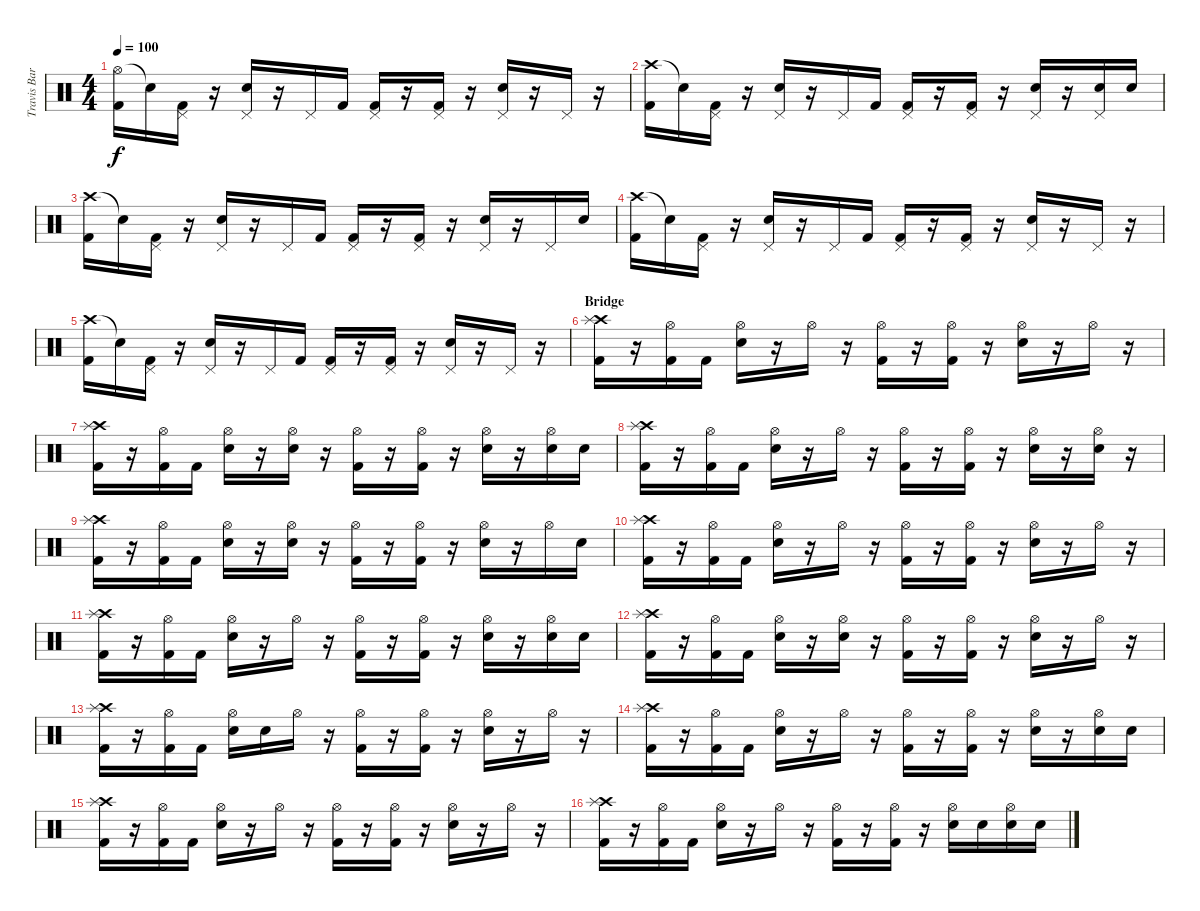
\track ("Travis Barker (Schlagzeug)" "Travis Bar") {instrument percussion}
\staff {score}
\articulation defaults
\ts (4 4)
\tempo 100
\clef neutral
\ks c
("Hi-Hat (open)" "Kick (hit) 2").16{dy f} "Snare (hit)"{t}.16 ("Pedal Hi-Hat (hit)" "Kick (hit) 2").16 r.16 ("Pedal Hi-Hat (hit)" "Electric Snare (hit)").16 r.16 "Pedal Hi-Hat (hit)".16 "Kick (hit) 2".16 ("Pedal Hi-Hat (hit)" "Kick (hit) 2").16 r.16 ("Pedal Hi-Hat (hit)" "Kick (hit) 2").16 r.16 ("Pedal Hi-Hat (hit)" "Electric Snare (hit)").16 r.16 "Pedal Hi-Hat (hit)".16 r.16 |
("Crash high (hit)" "Kick (hit) 2").16 "Snare (hit)"{t}.16 ("Pedal Hi-Hat (hit)" "Kick (hit) 2").16 r.16 ("Pedal Hi-Hat (hit)" "Electric Snare (hit)").16 r.16 "Pedal Hi-Hat (hit)".16 "Kick (hit) 2".16 ("Pedal Hi-Hat (hit)" "Kick (hit) 2").16 r.16 ("Pedal Hi-Hat (hit)" "Kick (hit) 2").16 r.16 ("Pedal Hi-Hat (hit)" "Electric Snare (hit)").16 r.16 ("Pedal Hi-Hat (hit)" "Electric Snare (hit)").16 "Electric Snare (hit)".16 |
("Crash high (hit)" "Kick (hit) 2").16 "Snare (hit)"{t}.16 ("Pedal Hi-Hat (hit)" "Kick (hit) 2").16 r.16 ("Pedal Hi-Hat (hit)" "Electric Snare (hit)").16 r.16 "Pedal Hi-Hat (hit)".16 "Kick (hit) 2".16 ("Pedal Hi-Hat (hit)" "Kick (hit) 2").16 r.16 ("Pedal Hi-Hat (hit)" "Kick (hit) 2").16 r.16 ("Pedal Hi-Hat (hit)" "Electric Snare (hit)").16 r.16 "Pedal Hi-Hat (hit)".16 "Electric Snare (hit)".16 |
("Crash high (hit)" "Kick (hit) 2").16 "Snare (hit)"{t}.16 ("Pedal Hi-Hat (hit)" "Kick (hit) 2").16 r.16 ("Pedal Hi-Hat (hit)" "Electric Snare (hit)").16 r.16 "Pedal Hi-Hat (hit)".16 "Kick (hit) 2".16 ("Pedal Hi-Hat (hit)" "Kick (hit) 2").16 r.16 ("Pedal Hi-Hat (hit)" "Kick (hit) 2").16 r.16 ("Pedal Hi-Hat (hit)" "Electric Snare (hit)").16 r.16 "Pedal Hi-Hat (hit)".16 r.16 |
("Crash high (hit)" "Kick (hit) 2").16 "Snare (hit)"{t}.16 ("Pedal Hi-Hat (hit)" "Kick (hit) 2").16 r.16 ("Pedal Hi-Hat (hit)" "Electric Snare (hit)").16 r.16 "Pedal Hi-Hat (hit)".16 "Kick (hit) 2".16 ("Pedal Hi-Hat (hit)" "Kick (hit) 2").16 r.16 ("Pedal Hi-Hat (hit)" "Kick (hit) 2").16 r.16 ("Pedal Hi-Hat (hit)" "Electric Snare (hit)").16 r.16 "Pedal Hi-Hat (hit)".16 r.16 |
\section ("" "Bridge")
("Crash high (hit)" "Splash (hit)" "Kick (hit) 2").16 r.16 ("Hi-Hat (open)" "Kick (hit) 2").16 "Kick (hit) 2".16 ("Hi-Hat (open)" "Electric Snare (hit)").16 r.16 "Hi-Hat (open)".16 r.16 ("Hi-Hat (open)" "Kick (hit) 2").16 r.16 ("Hi-Hat (open)" "Kick (hit) 2").16 r.16 ("Hi-Hat (open)" "Electric Snare (hit)").16 r.16 "Hi-Hat (open)".16 r.16 |
("Crash high (hit)" "Splash (hit)" "Kick (hit) 2").16 r.16 ("Hi-Hat (open)" "Kick (hit) 2").16 "Kick (hit) 2".16 ("Hi-Hat (open)" "Electric Snare (hit)").16 r.16 ("Hi-Hat (open)" "Electric Snare (hit)").16 r.16 ("Hi-Hat (open)" "Kick (hit) 2").16 r.16 ("Hi-Hat (open)" "Kick (hit) 2").16 r.16 ("Hi-Hat (open)" "Electric Snare (hit)").16 r.16 ("Hi-Hat (open)" "Electric Snare (hit)").16 "Electric Snare (hit)".16 |
("Crash high (hit)" "Splash (hit)" "Kick (hit) 2").16 r.16 ("Hi-Hat (open)" "Kick (hit) 2").16 "Kick (hit) 2".16 ("Hi-Hat (open)" "Electric Snare (hit)").16 r.16 "Hi-Hat (open)".16 r.16 ("Hi-Hat (open)" "Kick (hit) 2").16 r.16 ("Hi-Hat (open)" "Kick (hit) 2").16 r.16 ("Hi-Hat (open)" "Electric Snare (hit)").16 r.16 ("Hi-Hat (open)" "Electric Snare (hit)").16 r.16 |
("Crash high (hit)" "Splash (hit)" "Kick (hit) 2").16 r.16 ("Hi-Hat (open)" "Kick (hit) 2").16 "Kick (hit) 2".16 ("Hi-Hat (open)" "Electric Snare (hit)").16 r.16 ("Hi-Hat (open)" "Electric Snare (hit)").16 r.16 ("Hi-Hat (open)" "Kick (hit) 2").16 r.16 ("Hi-Hat (open)" "Kick (hit) 2").16 r.16 ("Hi-Hat (open)" "Electric Snare (hit)").16 r.16 "Hi-Hat (open)".16 "Electric Snare (hit)".16 |
("Crash high (hit)" "Splash (hit)" "Kick (hit) 2").16 r.16 ("Hi-Hat (open)" "Kick (hit) 2").16 "Kick (hit) 2".16 ("Hi-Hat (open)" "Electric Snare (hit)").16 r.16 "Hi-Hat (open)".16 r.16 ("Hi-Hat (open)" "Kick (hit) 2").16 r.16 ("Hi-Hat (open)" "Kick (hit) 2").16 r.16 ("Hi-Hat (open)" "Electric Snare (hit)").16 r.16 "Hi-Hat (open)".16 r.16 |
("Crash high (hit)" "Splash (hit)" "Kick (hit) 2").16 r.16 ("Hi-Hat (open)" "Kick (hit) 2").16 "Kick (hit) 2".16 ("Hi-Hat (open)" "Electric Snare (hit)").16 r.16 "Hi-Hat (open)".16 r.16 ("Hi-Hat (open)" "Kick (hit) 2").16 r.16 ("Hi-Hat (open)" "Kick (hit) 2").16 r.16 ("Hi-Hat (open)" "Electric Snare (hit)").16 r.16 ("Hi-Hat (open)" "Electric Snare (hit)").16 "Electric Snare (hit)".16 |
("Crash high (hit)" "Splash (hit)" "Kick (hit) 2").16 r.16 ("Hi-Hat (open)" "Kick (hit) 2").16 "Kick (hit) 2".16 ("Hi-Hat (open)" "Electric Snare (hit)").16 r.16 ("Hi-Hat (open)" "Electric Snare (hit)").16 r.16 ("Hi-Hat (open)" "Kick (hit) 2").16 r.16 ("Hi-Hat (open)" "Kick (hit) 2").16 r.16 ("Hi-Hat (open)" "Electric Snare (hit)").16 r.16 "Hi-Hat (open)".16 r.16 |
("Crash high (hit)" "Splash (hit)" "Kick (hit) 2").16 r.16 ("Hi-Hat (open)" "Kick (hit) 2").16 "Kick (hit) 2".16 ("Hi-Hat (open)" "Electric Snare (hit)").16 "Electric Snare (hit)".16 "Hi-Hat (open)".16 r.16 ("Hi-Hat (open)" "Kick (hit) 2").16 r.16 ("Hi-Hat (open)" "Kick (hit) 2").16 r.16 ("Hi-Hat (open)" "Electric Snare (hit)").16 r.16 "Hi-Hat (open)".16 r.16 |
("Crash high (hit)" "Splash (hit)" "Kick (hit) 2").16 r.16 ("Hi-Hat (open)" "Kick (hit) 2").16 "Kick (hit) 2".16 ("Hi-Hat (open)" "Electric Snare (hit)").16 r.16 "Hi-Hat (open)".16 r.16 ("Hi-Hat (open)" "Kick (hit) 2").16 r.16 ("Hi-Hat (open)" "Kick (hit) 2").16 r.16 ("Hi-Hat (open)" "Electric Snare (hit)").16 r.16 ("Hi-Hat (open)" "Electric Snare (hit)").16 "Electric Snare (hit)"{tr (40 32)}.16 |
("Crash high (hit)" "Splash (hit)" "Kick (hit) 2").16 r.16 ("Hi-Hat (open)" "Kick (hit) 2").16 "Kick (hit) 2".16 ("Hi-Hat (open)" "Electric Snare (hit)").16 r.16 "Hi-Hat (open)".16 r.16 ("Hi-Hat (open)" "Kick (hit) 2").16 r.16 ("Hi-Hat (open)" "Kick (hit) 2").16 r.16 ("Hi-Hat (open)" "Electric Snare (hit)").16 r.16 "Hi-Hat (open)".16 r.16 |
("Crash high (hit)" "Splash (hit)" "Kick (hit) 2").16 r.16 ("Hi-Hat (open)" "Kick (hit) 2").16 "Kick (hit) 2".16 ("Hi-Hat (open)" "Electric Snare (hit)").16 r.16 "Hi-Hat (open)".16 r.16 ("Hi-Hat (open)" "Kick (hit) 2").16 r.16 ("Hi-Hat (open)" "Kick (hit) 2").16 r.16 ("Hi-Hat (open)" "Electric Snare (hit)").16 "Electric Snare (hit)".16 ("Hi-Hat (open)" "Electric Snare (hit)").16 "Electric Snare (hit)".16
